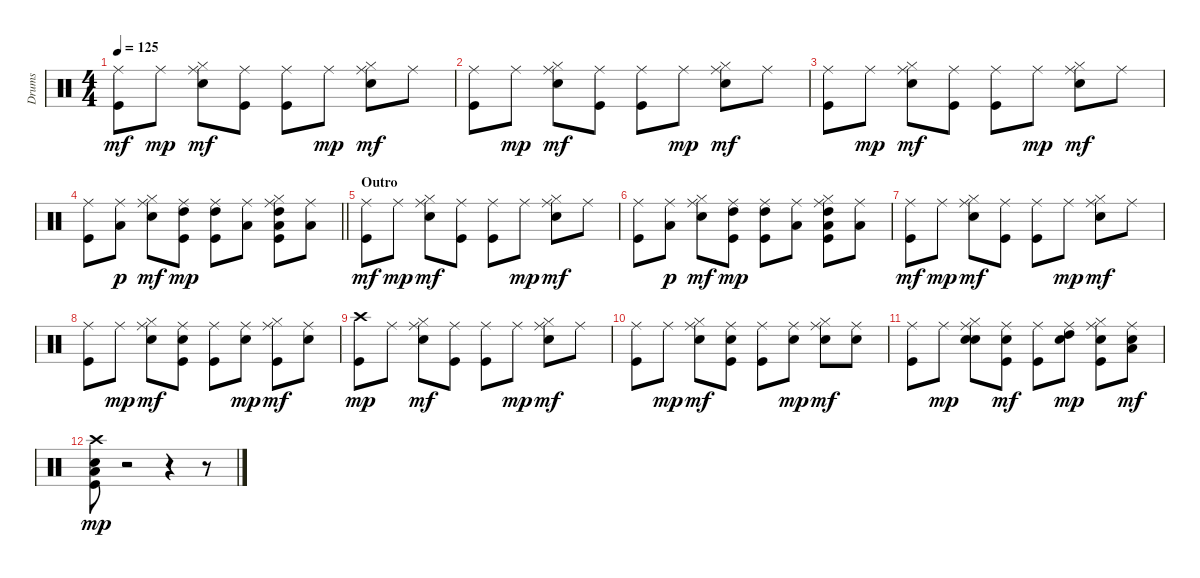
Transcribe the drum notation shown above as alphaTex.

\track ("Drums " "Drums ") {instrument percussion}
\staff {score}
\articulation defaults
\ts (4 4)
\tempo 125
\clef neutral
\ks c
("Kick (hit)" "Ride (middle)").8{dy mf} "Ride (middle)".8{dy mp} ("Snare (hit) 2" "Hi-Hat (closed)" "Ride (middle)").8{dy mf} ("Kick (hit)" "Ride (middle)").8 ("Kick (hit)" "Ride (middle)").8 "Ride (middle)".8{dy mp} ("Snare (hit) 2" "Hi-Hat (closed)" "Ride (middle)").8{dy mf} "Ride (middle)".8 |
("Kick (hit)" "Ride (middle)").8 "Ride (middle)".8{dy mp} ("Snare (hit) 2" "Hi-Hat (closed)" "Ride (middle)").8{dy mf} ("Kick (hit)" "Ride (middle)").8 ("Kick (hit)" "Ride (middle)").8 "Ride (middle)".8{dy mp} ("Snare (hit) 2" "Hi-Hat (closed)" "Ride (middle)").8{dy mf} "Ride (middle)".8 |
("Kick (hit)" "Ride (middle)").8 "Ride (middle)".8{dy mp} ("Snare (hit) 2" "Hi-Hat (closed)" "Ride (middle)").8{dy mf} ("Kick (hit)" "Ride (middle)").8 ("Kick (hit)" "Ride (middle)").8 "Ride (middle)".8{dy mp} ("Snare (hit) 2" "Hi-Hat (closed)" "Ride (middle)").8{dy mf} "Ride (middle)".8 |
\barLineRight lightlight
("Kick (hit)" "Ride (middle)").8 ("Ride (middle)" "Low Tom (hit)").8{dy p} ("Snare (hit) 2" "Hi-Hat (closed)" "Ride (middle)").8{dy mf} ("Kick (hit)" "Ride (middle)" "High Tom (hit)").8{dy mp} ("Kick (hit)" "Ride (middle)" "High Tom (hit)").8 ("Ride (middle)" "Low Tom (hit)").8 ("Kick (hit)" "Hi-Hat (closed)" "Ride (middle)" "High Tom (hit)" "Low Tom (hit)").8 ("Ride (middle)" "Low Floor Tom (hit)").8 |
\section ("" "Outro")
("Kick (hit)" "Ride (middle)").8{dy mf} "Ride (middle)".8{dy mp} ("Snare (hit) 2" "Hi-Hat (closed)" "Ride (middle)").8{dy mf} ("Kick (hit)" "Ride (middle)").8 ("Kick (hit)" "Ride (middle)").8 "Ride (middle)".8{dy mp} ("Snare (hit) 2" "Hi-Hat (closed)" "Ride (middle)").8{dy mf} "Ride (middle)".8 |
("Kick (hit)" "Ride (middle)").8 ("Ride (middle)" "Low Tom (hit)").8{dy p} ("Snare (hit) 2" "Hi-Hat (closed)" "Ride (middle)").8{dy mf} ("Kick (hit)" "Ride (middle)" "High Tom (hit)").8{dy mp} ("Kick (hit)" "Ride (middle)" "High Tom (hit)").8 ("Ride (middle)" "Low Tom (hit)").8 ("Kick (hit)" "Hi-Hat (closed)" "Ride (middle)" "High Tom (hit)" "Low Tom (hit)").8 ("Ride (middle)" "Low Floor Tom (hit)").8 |
("Kick (hit)" "Ride (middle)").8{dy mf} "Ride (middle)".8{dy mp} ("Snare (hit) 2" "Hi-Hat (closed)" "Ride (middle)").8{dy mf} ("Kick (hit)" "Ride (middle)").8 ("Kick (hit)" "Ride (middle)").8 "Ride (middle)".8{dy mp} ("Snare (hit) 2" "Hi-Hat (closed)" "Ride (middle)").8{dy mf} "Ride (middle)".8 |
("Kick (hit)" "Ride (middle)").8 "Ride (middle)".8{dy mp} ("Snare (hit) 2" "Hi-Hat (closed)" "Ride (middle)").8{dy mf} ("Kick (hit)" "Snare (hit) 2" "Ride (middle)").8 ("Kick (hit)" "Ride (middle)").8 ("Snare (hit) 2" "Ride (middle)").8{dy mp} ("Kick (hit)" "Hi-Hat (closed)" "Ride (middle)").8{dy mf} ("Snare (hit) 2" "Ride (middle)").8 |
("Kick (hit)" "Crash high (hit)").8{dy mp} "Ride (middle)".8 ("Snare (hit) 2" "Hi-Hat (closed)" "Ride (middle)").8{dy mf} ("Kick (hit)" "Ride (middle)").8 ("Kick (hit)" "Ride (middle)").8 "Ride (middle)".8{dy mp} ("Snare (hit) 2" "Hi-Hat (closed)" "Ride (middle)").8{dy mf} "Ride (middle)".8 |
("Kick (hit)" "Ride (middle)").8 "Ride (middle)".8{dy mp} ("Snare (hit) 2" "Hi-Hat (closed)" "Ride (middle)").8{dy mf} ("Kick (hit)" "Snare (hit) 2" "Ride (middle)").8 ("Kick (hit)" "Ride (middle)").8 ("Snare (hit) 2" "Ride (middle)").8{dy mp} ("Snare (hit) 2" "Hi-Hat (closed)" "Ride (middle)").8{dy mf} ("Snare (hit) 2" "Ride (middle)").8 |
("Kick (hit)" "Ride (middle)").8 "Ride (middle)".8{dy mp} ("Snare (hit) 2" "Hi-Hat (closed)" "Ride (middle)" "Hand Clap (hit)").8 ("Kick (hit)" "Snare (hit) 2" "Ride (middle)").8{dy mf} ("Kick (hit)" "Ride (middle)").8 ("Snare (hit) 2" "Ride (middle)" "High Tom (hit)").8{dy mp} ("Kick (hit)" "Hi-Hat (closed)" "Ride (middle)" "Hand Clap (hit)").8 ("Snare (hit) 2" "Ride (middle)" "Low Tom (hit)").8{dy mf} |
("Kick (hit)" "Snare (hit) 2" "Crash high (hit)" "Low Tom (hit)").8{dy mp} r.2 r.4 r.8
